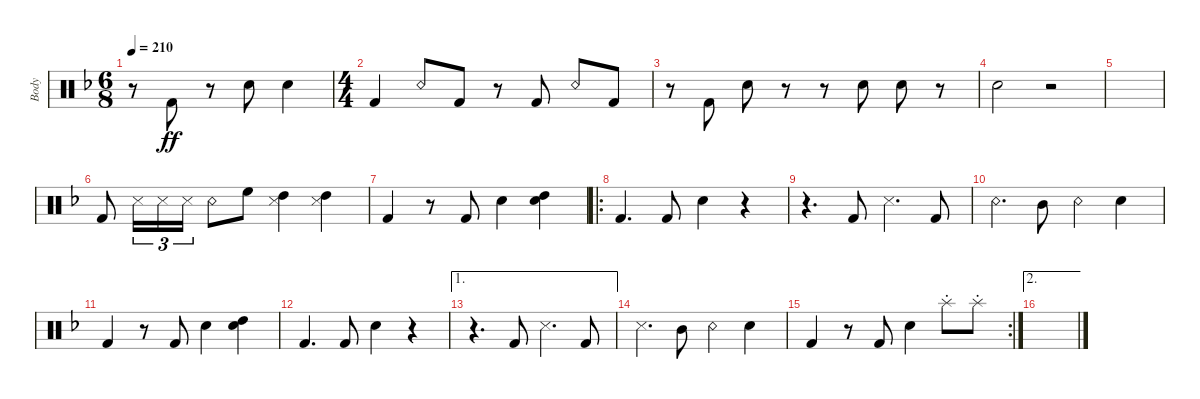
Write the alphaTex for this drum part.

\defaultSystemsLayout 2
\bracketExtendMode groupsimilarinstruments
\otherSystemsTrackNameOrientation horizontal
\track ("Body" "Body") {instrument percussion}
\staff {score}
\articulation defaults
\ts (6 8)
\scale
1.05598
\tempo 210
\accidentals auto
\clef neutral
\ottava regular
\simile none
\ks dminor
r.8{dy ff beam Down} "Kick (hit) 2"{acc forcenatural}.8{beam Up} r.8{beam Up} "Snare (hit) 2"{acc forcenatural}.8{beam Down} "Snare (hit) 2"{acc forcenatural}.4{beam Down} |
\ts (4 4)
\scale
0.944021 "Kick (hit) 2"{acc forcenatural}.4{beam Up} "Snare (rim shot)"{acc forcenatural}.8{beam Up} "Kick (hit) 2"{acc forcenatural}.8{beam Up} r.8{beam Up} "Kick (hit) 2"{acc forcenatural}.8{beam Up} "Snare (rim shot)"{acc forcenatural}.8{beam Up} "Kick (hit) 2"{acc forcenatural}.8{beam Up} |
\scale
1.05422 r.8{beam Down} "Kick (hit) 2"{acc forcenatural}.8{beam Up} "Snare (hit) 2"{acc forcenatural}.8{beam Down} r.8{beam Down} r.8{beam Down} "Snare (hit) 2"{acc forcenatural}.8{beam Down} "Snare (hit) 2"{acc forcenatural}.8{beam Down} r.8{beam Down} |
\scale
0.945776 "Snare (hit) 2"{acc forcenatural}.2{beam Down} r.2{beam Down} |
\scale
1.04804 |
\scale
0.951961 "Kick (hit) 2"{acc forcenatural}.8{beam Up} "Snare (side stick) 3"{acc forcenatural}.16{tu (3 2) beam Down} "Snare (side stick) 3"{acc forcenatural}.16{tu (3 2) beam Down} "Snare (side stick) 3"{acc forcenatural}.16{tu (3 2) beam Down} "Snare (rim shot)"{acc forcenatural}.8{beam Down} "High Floor Tom (hit)"{acc forcenatural}.8{beam Down} ("High Tom (hit)"{acc forcenatural} "Snare (side stick) 3"{acc forcenatural}).4{beam Down} ("High Tom (hit)"{acc forcenatural} "Snare (side stick) 3"{acc forcenatural}).4{beam Down} |
\scale
1.04286 "Kick (hit) 2"{acc forcenatural}.4{beam Up} r.8{beam Up} "Kick (hit) 2"{acc forcenatural}.8{beam Up} "Snare (hit) 2"{acc forcenatural}.4{beam Down} ("High Tom (hit)"{acc forcenatural} "Snare (hit) 2"{acc forcenatural}).4{beam Down} |
\ro
\scale
0.957141 "Kick (hit) 2"{acc forcenatural}.4{d beam Up} "Kick (hit) 2"{acc forcenatural}.8{beam Up} "Snare (hit) 2"{acc forcenatural}.4{beam Down} r.4{beam Down} |
\scale
1.04804 r.4{d beam Down} "Kick (hit) 2"{acc forcenatural}.8{beam Up} "Snare (side stick) 3"{acc forcenatural}.4{d beam Down} "Kick (hit) 2"{acc forcenatural}.8{beam Up} |
\scale
0.951961 "Snare (rim shot)"{acc forcenatural}.4{d beam Down} "Mid Tom (hit)"{acc forcenatural}.8{beam Down} "Snare (rim shot)"{acc forcenatural}.4{beam Down} "Snare (hit) 2"{acc forcenatural}.4{beam Down} |
\scale
1.04804 "Kick (hit) 2"{acc forcenatural}.4{beam Up} r.8{beam Up} "Kick (hit) 2"{acc forcenatural}.8{beam Up} "Snare (hit) 2"{acc forcenatural}.4{beam Down} ("High Tom (hit)"{acc forcenatural} "Snare (hit) 2"{acc forcenatural}).4{beam Down} |
\scale
0.951961 "Kick (hit) 2"{acc forcenatural}.4{d beam Up} "Kick (hit) 2"{acc forcenatural}.8{beam Up} "Snare (hit) 2"{acc forcenatural}.4{beam Down} r.4{beam Down} |
\ae 1
\scale
1.04804 r.4{d beam Down} "Kick (hit) 2"{acc forcenatural}.8{beam Up} "Snare (side stick) 3"{acc forcenatural}.4{d beam Down} "Kick (hit) 2"{acc forcenatural}.8{beam Up} |
\scale
0.951961 "Snare (side stick) 3"{acc forcenatural}.4{d beam Down} "Mid Tom (hit)"{acc forcenatural}.8{beam Down} "Snare (rim shot)"{acc forcenatural}.4{beam Down} "Snare (hit) 2"{acc forcenatural}.4{beam Down} |
\rc 2
\scale
1.06024 "Kick (hit) 2"{acc forcenatural}.4{beam Up} r.8{beam Up} "Kick (hit) 2"{acc forcenatural}.8{beam Up} "Snare (hit) 2"{acc forcenatural}.4{beam Down} "Splash (hit)"{st acc forcenatural}.8{beam Down} "Splash (hit)"{st acc forcenatural}.8{beam Down} |
\ae 2
\scale
0.939762
